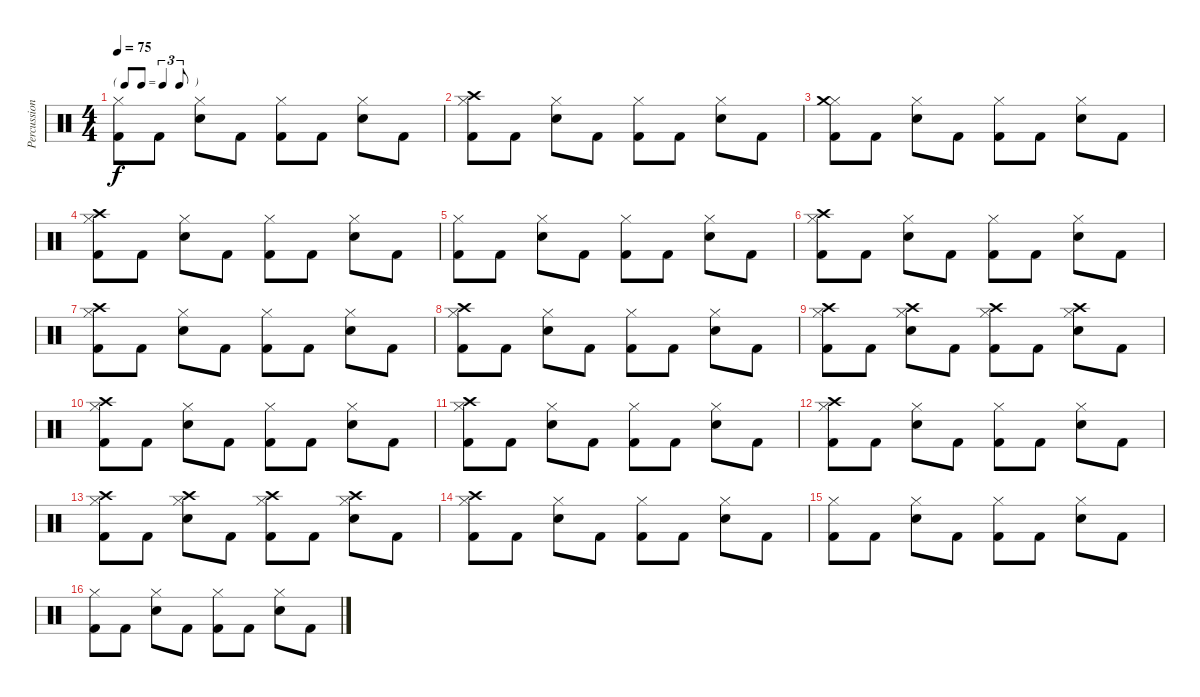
\track ("Percussions" "Percussion") {instrument percussion}
\staff {score}
\articulation defaults
\ts (4 4)
\tf triplet8th
\tempo 75
\clef neutral
\ks c
("Hi-Hat (closed)" "Kick (hit) 2").8{dy f} "Kick (hit) 2".8 ("Hi-Hat (closed)" "Snare (hit) 2").8 "Kick (hit) 2".8 ("Hi-Hat (closed)" "Kick (hit) 2").8 "Kick (hit) 2".8 ("Hi-Hat (closed)" "Snare (hit) 2").8 "Kick (hit) 2".8 |
("Hi-Hat (closed)" "Crash high (hit)" "Kick (hit) 2").8 "Kick (hit) 2".8 ("Hi-Hat (closed)" "Snare (hit) 2").8 "Kick (hit) 2".8 ("Hi-Hat (closed)" "Kick (hit) 2").8 "Kick (hit) 2".8 ("Hi-Hat (closed)" "Snare (hit) 2").8 "Kick (hit) 2".8 |
("Hi-Hat (closed)" "Crash medium (hit)" "Kick (hit) 2").8 "Kick (hit) 2".8 ("Hi-Hat (closed)" "Snare (hit) 2").8 "Kick (hit) 2".8 ("Hi-Hat (closed)" "Kick (hit) 2").8 "Kick (hit) 2".8 ("Hi-Hat (closed)" "Snare (hit) 2").8 "Kick (hit) 2".8 |
("Hi-Hat (closed)" "Crash high (hit)" "Kick (hit) 2").8 "Kick (hit) 2".8 ("Hi-Hat (closed)" "Snare (hit) 2").8 "Kick (hit) 2".8 ("Hi-Hat (closed)" "Kick (hit) 2").8 "Kick (hit) 2".8 ("Hi-Hat (closed)" "Snare (hit) 2").8 "Kick (hit) 2".8 |
("Hi-Hat (closed)" "Kick (hit) 2").8 "Kick (hit) 2".8 ("Hi-Hat (closed)" "Snare (hit) 2").8 "Kick (hit) 2".8 ("Hi-Hat (closed)" "Kick (hit) 2").8 "Kick (hit) 2".8 ("Hi-Hat (closed)" "Snare (hit) 2").8 "Kick (hit) 2".8 |
("Hi-Hat (closed)" "Crash high (hit)" "Kick (hit) 2").8 "Kick (hit) 2".8 ("Hi-Hat (closed)" "Snare (hit) 2").8 "Kick (hit) 2".8 ("Hi-Hat (closed)" "Kick (hit) 2").8 "Kick (hit) 2".8 ("Hi-Hat (closed)" "Snare (hit) 2").8 "Kick (hit) 2".8 |
("Hi-Hat (closed)" "Crash high (hit)" "Kick (hit) 2").8 "Kick (hit) 2".8 ("Hi-Hat (closed)" "Snare (hit) 2").8 "Kick (hit) 2".8 ("Hi-Hat (closed)" "Kick (hit) 2").8 "Kick (hit) 2".8 ("Hi-Hat (closed)" "Snare (hit) 2").8 "Kick (hit) 2".8 |
("Hi-Hat (closed)" "Crash high (hit)" "Kick (hit) 2").8 "Kick (hit) 2".8 ("Hi-Hat (closed)" "Snare (hit) 2").8 "Kick (hit) 2".8 ("Hi-Hat (closed)" "Kick (hit) 2").8 "Kick (hit) 2".8 ("Hi-Hat (closed)" "Snare (hit) 2").8 "Kick (hit) 2".8 |
("Hi-Hat (closed)" "Crash high (hit)" "Kick (hit) 2").8 "Kick (hit) 2".8 ("Hi-Hat (closed)" "Crash high (hit)" "Snare (hit) 2").8 "Kick (hit) 2".8 ("Hi-Hat (closed)" "Crash high (hit)" "Kick (hit) 2").8 "Kick (hit) 2".8 ("Hi-Hat (closed)" "Crash high (hit)" "Snare (hit) 2").8 "Kick (hit) 2".8 |
("Hi-Hat (closed)" "Crash high (hit)" "Kick (hit) 2").8 "Kick (hit) 2".8 ("Hi-Hat (closed)" "Snare (hit) 2").8 "Kick (hit) 2".8 ("Hi-Hat (closed)" "Kick (hit) 2").8 "Kick (hit) 2".8 ("Hi-Hat (closed)" "Snare (hit) 2").8 "Kick (hit) 2".8 |
("Hi-Hat (closed)" "Crash high (hit)" "Kick (hit) 2").8 "Kick (hit) 2".8 ("Hi-Hat (closed)" "Snare (hit) 2").8 "Kick (hit) 2".8 ("Hi-Hat (closed)" "Kick (hit) 2").8 "Kick (hit) 2".8 ("Hi-Hat (closed)" "Snare (hit) 2").8 "Kick (hit) 2".8 |
("Hi-Hat (closed)" "Crash high (hit)" "Kick (hit) 2").8 "Kick (hit) 2".8 ("Hi-Hat (closed)" "Snare (hit) 2").8 "Kick (hit) 2".8 ("Hi-Hat (closed)" "Kick (hit) 2").8 "Kick (hit) 2".8 ("Hi-Hat (closed)" "Snare (hit) 2").8 "Kick (hit) 2".8 |
("Hi-Hat (closed)" "Crash high (hit)" "Kick (hit) 2").8 "Kick (hit) 2".8 ("Hi-Hat (closed)" "Crash high (hit)" "Snare (hit) 2").8 "Kick (hit) 2".8 ("Hi-Hat (closed)" "Crash high (hit)" "Kick (hit) 2").8 "Kick (hit) 2".8 ("Hi-Hat (closed)" "Crash high (hit)" "Snare (hit) 2").8 "Kick (hit) 2".8 |
("Hi-Hat (closed)" "Crash high (hit)" "Kick (hit) 2").8 "Kick (hit) 2".8 ("Hi-Hat (closed)" "Snare (hit) 2").8 "Kick (hit) 2".8 ("Hi-Hat (closed)" "Kick (hit) 2").8 "Kick (hit) 2".8 ("Hi-Hat (closed)" "Snare (hit) 2").8 "Kick (hit) 2".8 |
("Hi-Hat (closed)" "Kick (hit) 2").8 "Kick (hit) 2".8 ("Hi-Hat (closed)" "Snare (hit) 2").8 "Kick (hit) 2".8 ("Hi-Hat (closed)" "Kick (hit) 2").8 "Kick (hit) 2".8 ("Hi-Hat (closed)" "Snare (hit) 2").8 "Kick (hit) 2".8 |
("Hi-Hat (closed)" "Kick (hit) 2").8 "Kick (hit) 2".8 ("Hi-Hat (closed)" "Snare (hit) 2").8 "Kick (hit) 2".8 ("Hi-Hat (closed)" "Kick (hit) 2").8 "Kick (hit) 2".8 ("Hi-Hat (closed)" "Snare (hit) 2").8 "Kick (hit) 2".8
